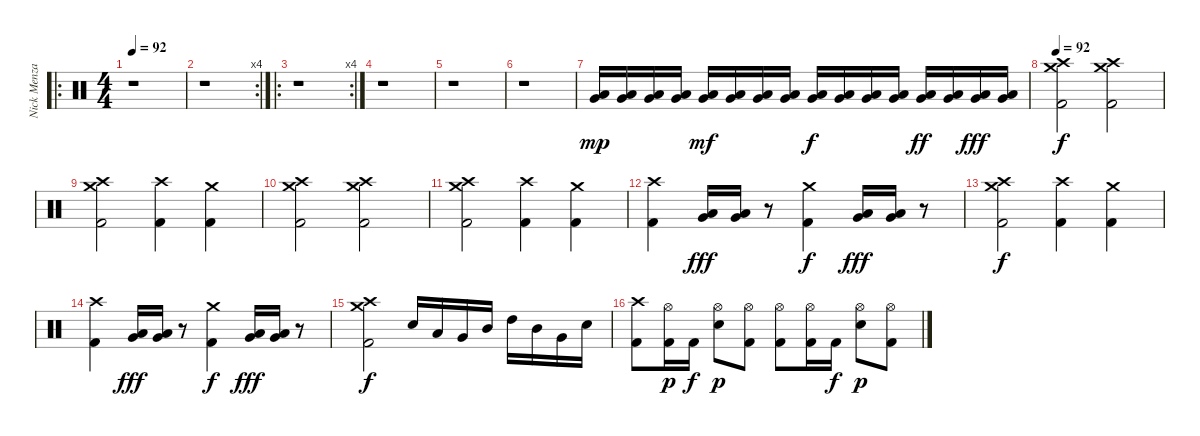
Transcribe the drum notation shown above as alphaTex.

\track ("Nick Menza" "Nick Menza") {instrument percussion}
\staff {score}
\articulation defaults
\ro
\ts (4 4)
\tempo 92
\clef neutral
\ks c
r.1{dy mp} |
\rc 4
r.1 |
\ro
\rc 4
r.1 |
r.1 |
r.1 |
r.1 |
("Very Low Tom (hit)" "Low Floor Tom (hit)").16 ("Very Low Tom (hit)" "Low Floor Tom (hit)").16 ("Very Low Tom (hit)" "Low Floor Tom (hit)").16 ("Very Low Tom (hit)" "Low Floor Tom (hit)").16 ("Very Low Tom (hit)" "Low Floor Tom (hit)").16{dy mf} ("Very Low Tom (hit)" "Low Floor Tom (hit)").16 ("Very Low Tom (hit)" "Low Floor Tom (hit)").16 ("Very Low Tom (hit)" "Low Floor Tom (hit)").16 ("Very Low Tom (hit)" "Low Floor Tom (hit)").16{dy f} ("Very Low Tom (hit)" "Low Floor Tom (hit)").16 ("Very Low Tom (hit)" "Low Floor Tom (hit)").16 ("Very Low Tom (hit)" "Low Floor Tom (hit)").16 ("Very Low Tom (hit)" "Low Floor Tom (hit)").16{dy ff} ("Very Low Tom (hit)" "Low Floor Tom (hit)").16 ("Very Low Tom (hit)" "Low Floor Tom (hit)").16{dy fff} ("Very Low Tom (hit)" "Low Floor Tom (hit)").16 |
\tempo 90
\tempo 92
("Crash medium (hit)" "Crash high (hit)" "Kick (hit) 2").2{dy f} ("Crash medium (hit)" "Crash high (hit)" "Kick (hit) 2").2 |
("Crash medium (hit)" "Crash high (hit)" "Kick (hit) 2").2 ("Crash high (hit)" "Kick (hit) 2").4 ("Crash medium (hit)" "Kick (hit) 2").4 |
("Crash medium (hit)" "Crash high (hit)" "Kick (hit) 2").2 ("Crash medium (hit)" "Crash high (hit)" "Kick (hit) 2").2 |
("Crash medium (hit)" "Crash high (hit)" "Kick (hit) 2").2 ("Crash high (hit)" "Kick (hit) 2").4 ("Crash medium (hit)" "Kick (hit) 2").4 |
("Crash high (hit)" "Kick (hit) 2").4 ("Very Low Tom (hit)" "Low Floor Tom (hit)").16{dy fff} ("Very Low Tom (hit)" "Low Floor Tom (hit)").16 r.8 ("Crash medium (hit)" "Kick (hit) 2").4{dy f} ("Very Low Tom (hit)" "Low Floor Tom (hit)").16{dy fff} ("Very Low Tom (hit)" "Low Floor Tom (hit)").16 r.8 |
("Crash medium (hit)" "Crash high (hit)" "Kick (hit) 2").2{dy f} ("Crash high (hit)" "Kick (hit) 2").4 ("Crash medium (hit)" "Kick (hit) 2").4 |
("Crash high (hit)" "Kick (hit) 2").4 ("Very Low Tom (hit)" "Low Floor Tom (hit)").16{dy fff} ("Very Low Tom (hit)" "Low Floor Tom (hit)").16 r.8 ("Crash medium (hit)" "Kick (hit) 2").4{dy f} ("Very Low Tom (hit)" "Low Floor Tom (hit)").16{dy fff} ("Very Low Tom (hit)" "Low Floor Tom (hit)").16 r.8 |
("Crash medium (hit)" "Crash high (hit)" "Kick (hit) 2").2{dy f} "Electric Snare (hit)".16 "Low Tom (hit)".16 "Very Low Tom (hit)".16 "Mid Tom (hit)".16 "High Tom (hit)".16 "Mid Tom (hit)".16 "Very Low Tom (hit)".16 "Electric Snare (hit)".16 |
("Crash high (hit)" "Kick (hit) 2").8 ("Hi-Hat (open)" "Kick (hit) 2").16{dy p} "Kick (hit) 2".16{dy f} ("Hi-Hat (open)" "Electric Snare (hit)").8{dy p} ("Hi-Hat (open)" "Kick (hit) 2").8 ("Hi-Hat (open)" "Kick (hit) 2").8 ("Hi-Hat (open)" "Kick (hit) 2").16 "Kick (hit) 2".16{dy f} ("Hi-Hat (open)" "Electric Snare (hit)").8{dy p} ("Hi-Hat (open)" "Kick (hit) 2").8
